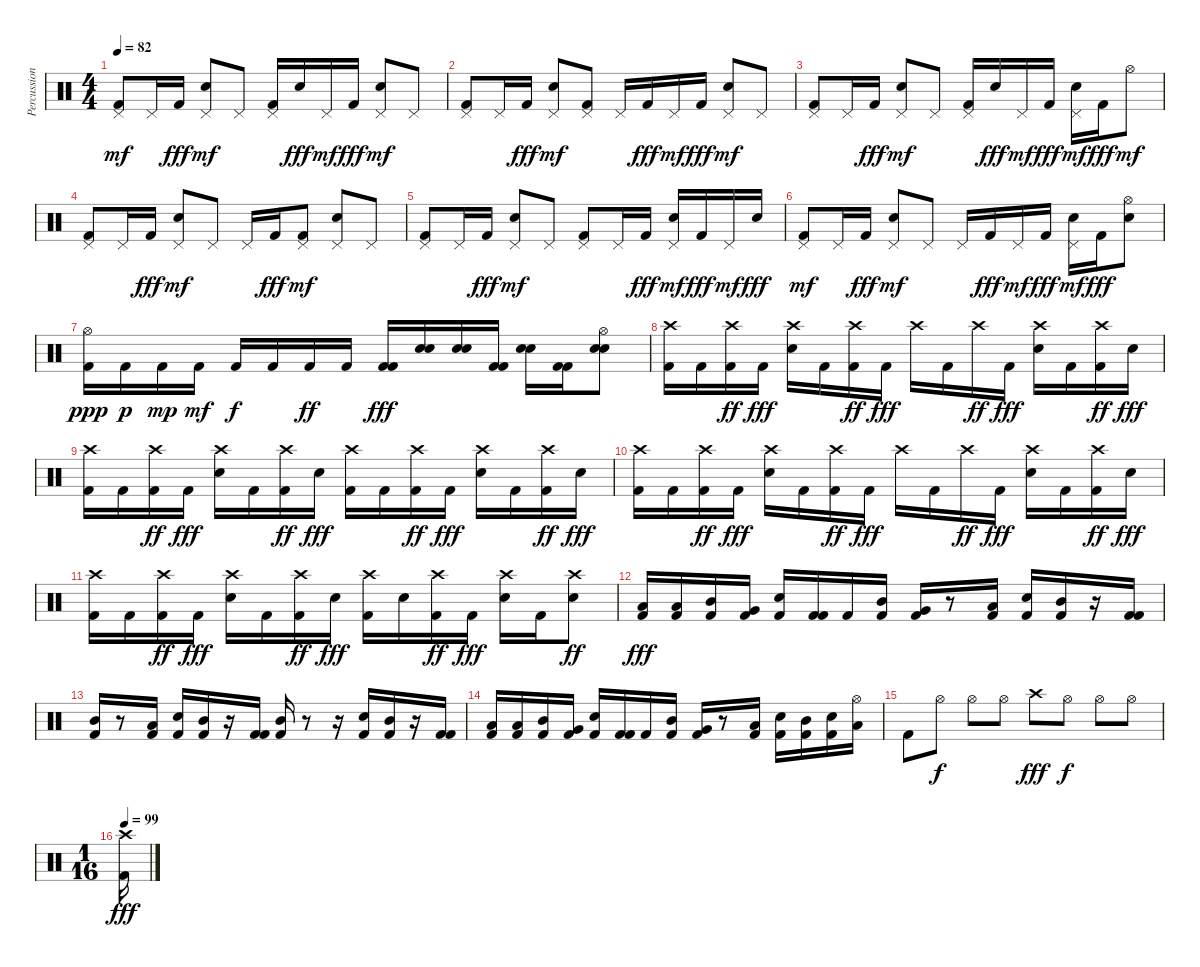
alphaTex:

\track ("Percussions" "Percussion") {instrument percussion}
\staff {score}
\articulation defaults
\ts (4 4)
\tempo 82
\clef neutral
\ks c
("Kick (hit) 2" "Pedal Hi-Hat (hit)").8{dy mf} "Pedal Hi-Hat (hit)".16 "Kick (hit) 2".16{dy fff} ("Snare (hit) 2" "Pedal Hi-Hat (hit)").8{dy mf} "Pedal Hi-Hat (hit)".8 ("Kick (hit) 2" "Pedal Hi-Hat (hit)").16 "Snare (hit) 2".16{dy fff} "Pedal Hi-Hat (hit)".16{dy mf} "Kick (hit) 2".16{dy fff} ("Snare (hit) 2" "Pedal Hi-Hat (hit)").8{dy mf} "Pedal Hi-Hat (hit)".8 |
("Kick (hit) 2" "Pedal Hi-Hat (hit)").8 "Pedal Hi-Hat (hit)".16 "Kick (hit) 2".16{dy fff} ("Snare (hit) 2" "Pedal Hi-Hat (hit)").8{dy mf} ("Kick (hit) 2" "Pedal Hi-Hat (hit)").8 "Pedal Hi-Hat (hit)".16 "Kick (hit) 2".16{dy fff} "Pedal Hi-Hat (hit)".16{dy mf} "Kick (hit) 2".16{dy fff} ("Snare (hit) 2" "Pedal Hi-Hat (hit)").8{dy mf} "Pedal Hi-Hat (hit)".8 |
("Kick (hit) 2" "Pedal Hi-Hat (hit)").8 "Pedal Hi-Hat (hit)".16 "Kick (hit) 2".16{dy fff} ("Snare (hit) 2" "Pedal Hi-Hat (hit)").8{dy mf} "Pedal Hi-Hat (hit)".8 ("Kick (hit) 2" "Pedal Hi-Hat (hit)").16 "Snare (hit) 2".16{dy fff} "Pedal Hi-Hat (hit)".16{dy mf} "Kick (hit) 2".16{dy fff} ("Snare (hit) 2" "Pedal Hi-Hat (hit)").16{dy mf} "Kick (hit) 2".16{dy fff} "Hi-Hat (open)".8{dy mf} |
("Kick (hit) 2" "Pedal Hi-Hat (hit)").8 "Pedal Hi-Hat (hit)".16 "Kick (hit) 2".16{dy fff} ("Snare (hit) 2" "Pedal Hi-Hat (hit)").8{dy mf} "Pedal Hi-Hat (hit)".8 "Pedal Hi-Hat (hit)".16 "Kick (hit) 2".16{dy fff} ("Kick (hit) 2" "Pedal Hi-Hat (hit)").8{dy mf} ("Snare (hit) 2" "Pedal Hi-Hat (hit)").8 "Pedal Hi-Hat (hit)".8 |
("Kick (hit) 2" "Pedal Hi-Hat (hit)").8 "Pedal Hi-Hat (hit)".16 "Kick (hit) 2".16{dy fff} ("Snare (hit) 2" "Pedal Hi-Hat (hit)").8{dy mf} "Pedal Hi-Hat (hit)".8 ("Kick (hit) 2" "Pedal Hi-Hat (hit)").8 "Pedal Hi-Hat (hit)".16 "Kick (hit) 2".16{dy fff} ("Snare (hit) 2" "Pedal Hi-Hat (hit)").16{dy mf} "Kick (hit) 2".16{dy fff} "Pedal Hi-Hat (hit)".16{dy mf} "Snare (hit) 2".16{dy fff} |
("Kick (hit) 2" "Pedal Hi-Hat (hit)").8{dy mf} "Pedal Hi-Hat (hit)".16 "Kick (hit) 2".16{dy fff} ("Snare (hit) 2" "Pedal Hi-Hat (hit)").8{dy mf} "Pedal Hi-Hat (hit)".8 "Pedal Hi-Hat (hit)".16 "Kick (hit) 2".16{dy fff} "Pedal Hi-Hat (hit)".16{dy mf} "Kick (hit) 2".16{dy fff} ("Snare (hit) 2" "Pedal Hi-Hat (hit)").16{dy mf} "Kick (hit) 2".16{dy fff} ("Snare (hit) 2" "Hi-Hat (open)").8 |
("Kick (hit) 2" "Hi-Hat (open)").16{dy ppp} "Kick (hit) 2".16{dy p} "Kick (hit) 2".16{dy mp} "Kick (hit) 2".16{dy mf} "Kick (hit) 2".16{dy f} "Kick (hit) 2".16 "Kick (hit) 2".16{dy ff} "Kick (hit) 2".16 ("Kick (hit) 2" "Kick (hit) 2").16{dy fff} ("Snare (hit) 2" "Snare (hit) 2").16 ("Snare (hit) 2" "Snare (hit) 2").16 ("Kick (hit) 2" "Kick (hit) 2").16 ("Snare (hit) 2" "Snare (hit) 2").16 ("Kick (hit) 2" "Kick (hit) 2").16 ("Snare (hit) 2" "Snare (hit) 2" "Hi-Hat (open)").8 |
("Kick (hit) 2" "Crash high (hit)").16 "Kick (hit) 2".16 ("Kick (hit) 2" "Crash high (hit)").16{dy ff} "Kick (hit) 2".16{dy fff} ("Snare (hit) 2" "Crash high (hit)").16 "Kick (hit) 2".16 ("Kick (hit) 2" "Crash high (hit)").16{dy ff} "Kick (hit) 2".16{dy fff} "Crash high (hit)".16 "Kick (hit) 2".16 "Crash high (hit)".16{dy ff} "Kick (hit) 2".16{dy fff} ("Snare (hit) 2" "Crash high (hit)").16 "Kick (hit) 2".16 ("Kick (hit) 2" "Crash high (hit)").16{dy ff} "Snare (hit) 2".16{dy fff} |
("Kick (hit) 2" "Crash high (hit)").16 "Kick (hit) 2".16 ("Kick (hit) 2" "Crash high (hit)").16{dy ff} "Kick (hit) 2".16{dy fff} ("Snare (hit) 2" "Crash high (hit)").16 "Kick (hit) 2".16 ("Kick (hit) 2" "Crash high (hit)").16{dy ff} "Snare (hit) 2".16{dy fff} ("Kick (hit) 2" "Crash high (hit)").16 "Kick (hit) 2".16 ("Kick (hit) 2" "Crash high (hit)").16{dy ff} "Kick (hit) 2".16{dy fff} ("Snare (hit) 2" "Crash high (hit)").16 "Kick (hit) 2".16 ("Kick (hit) 2" "Crash high (hit)").16{dy ff} "Snare (hit) 2".16{dy fff} |
("Kick (hit) 2" "Crash high (hit)").16 "Kick (hit) 2".16 ("Kick (hit) 2" "Crash high (hit)").16{dy ff} "Kick (hit) 2".16{dy fff} ("Snare (hit) 2" "Crash high (hit)").16 "Kick (hit) 2".16 ("Kick (hit) 2" "Crash high (hit)").16{dy ff} "Kick (hit) 2".16{dy fff} "Crash high (hit)".16 "Kick (hit) 2".16 "Crash high (hit)".16{dy ff} "Kick (hit) 2".16{dy fff} ("Snare (hit) 2" "Crash high (hit)").16 "Kick (hit) 2".16 ("Kick (hit) 2" "Crash high (hit)").16{dy ff} "Snare (hit) 2".16{dy fff} |
("Kick (hit) 2" "Crash high (hit)").16 "Kick (hit) 2".16 ("Kick (hit) 2" "Crash high (hit)").16{dy ff} "Kick (hit) 2".16{dy fff} ("Snare (hit) 2" "Crash high (hit)").16 "Kick (hit) 2".16 ("Kick (hit) 2" "Crash high (hit)").16{dy ff} "Snare (hit) 2".16{dy fff} ("Kick (hit) 2" "Crash high (hit)").16 "Snare (hit) 2".16 ("Kick (hit) 2" "Crash high (hit)").16{dy ff} "Kick (hit) 2".16{dy fff} ("Snare (hit) 2" "Crash high (hit)").16 "Kick (hit) 2".16 ("Snare (hit) 2" "Crash high (hit)").8{dy ff} |
("Kick (hit) 2" "Low Tom (hit)").16{dy fff} ("Kick (hit) 2" "Low Tom (hit)").16 ("Kick (hit) 2" "Mid Tom (hit)").16 ("Kick (hit) 2" "Very Low Tom (hit)").16 ("Kick (hit) 2" "Snare (hit) 2").16 ("Kick (hit) 2" "Kick (hit) 2").16 "Kick (hit) 2".16 ("Kick (hit) 2" "Mid Tom (hit)").16 ("Kick (hit) 2" "Very Low Tom (hit)").16 r.8 ("Kick (hit) 2" "Low Tom (hit)").16 ("Kick (hit) 2" "Snare (hit) 2").16 ("Kick (hit) 2" "Mid Tom (hit)").16 r.16 ("Kick (hit) 2" "Kick (hit) 2").16 |
("Kick (hit) 2" "Mid Tom (hit)").16 r.8 ("Kick (hit) 2" "Low Tom (hit)").16 ("Kick (hit) 2" "Snare (hit) 2").16 ("Kick (hit) 2" "Mid Tom (hit)").16 r.16 ("Kick (hit) 2" "Kick (hit) 2").16 ("Kick (hit) 2" "Mid Tom (hit)").16 r.8 r.16 ("Kick (hit) 2" "Snare (hit) 2").16 ("Kick (hit) 2" "Mid Tom (hit)").16 r.16 ("Kick (hit) 2" "Kick (hit) 2").16 |
("Kick (hit) 2" "Low Tom (hit)").16 ("Kick (hit) 2" "Low Tom (hit)").16 ("Kick (hit) 2" "Mid Tom (hit)").16 ("Kick (hit) 2" "Very Low Tom (hit)").16 ("Kick (hit) 2" "Snare (hit) 2").16 ("Kick (hit) 2" "Kick (hit) 2").16 "Kick (hit) 2".16 ("Kick (hit) 2" "Mid Tom (hit)").16 ("Kick (hit) 2" "Very Low Tom (hit)").16 r.8 ("Kick (hit) 2" "Low Tom (hit)").16 ("Kick (hit) 2" "Snare (hit) 2").16 ("Kick (hit) 2" "Mid Tom (hit)").16 ("Kick (hit) 2" "Snare (hit) 2").16 ("Hi-Hat (open)" "Low Tom (hit)").16 |
"Kick (hit) 2".8 "Hi-Hat (open)".8{dy f} "Hi-Hat (open)".8 "Hi-Hat (open)".8 "Crash high (hit)".8{dy fff} "Hi-Hat (open)".8{dy f} "Hi-Hat (open)".8 "Hi-Hat (open)".8 |
\ts (1 16)
\tempo 99
("Kick (hit) 2" "Crash high (hit)").16{dy fff}
